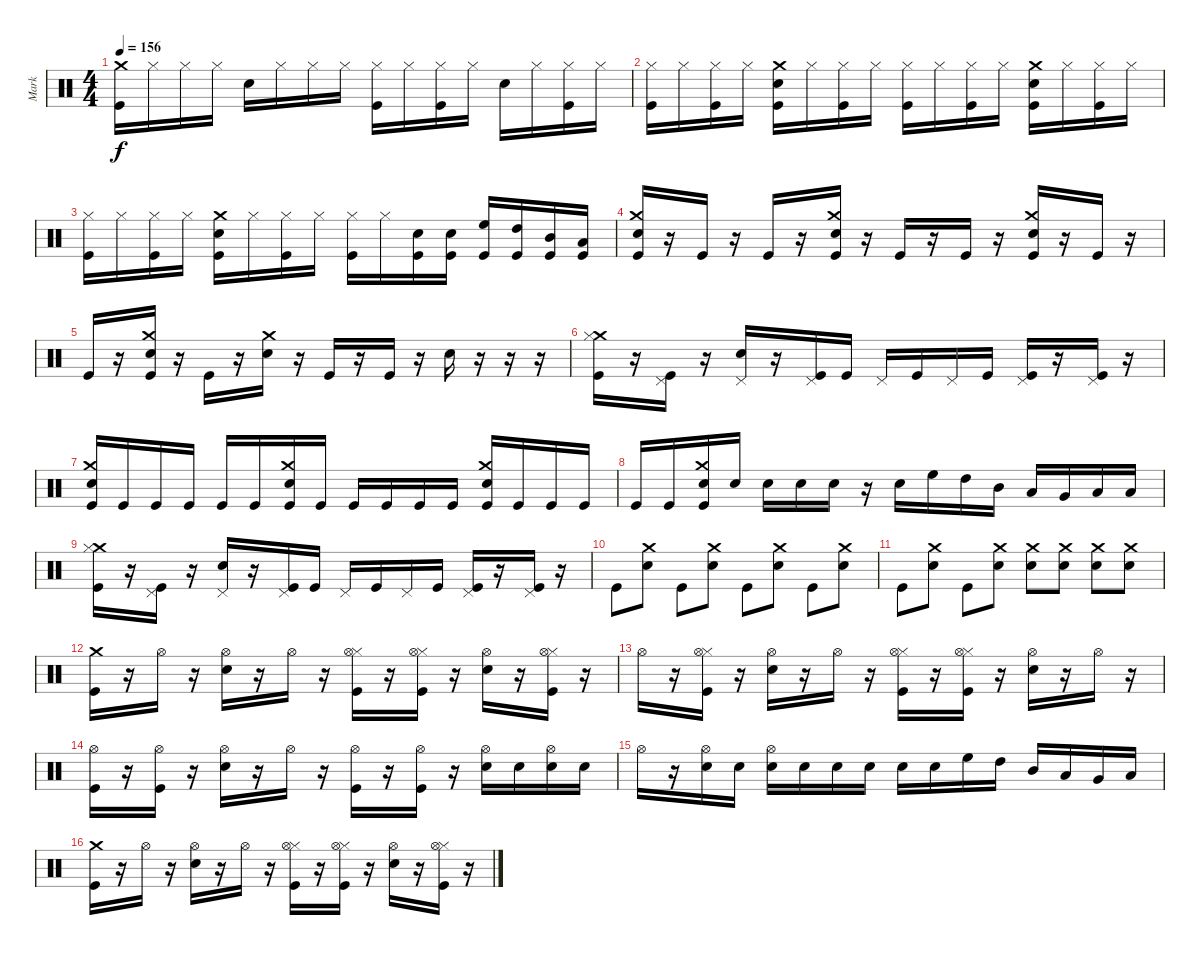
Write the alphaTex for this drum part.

\track ("Mark" "Mark") {instrument percussion}
\staff {score}
\articulation defaults
\ts (4 4)
\tempo 156
\clef neutral
\ks c
("Kick (hit)" "Crash medium (hit)").16{dy f} "Hi-Hat (closed)".16 "Hi-Hat (closed)".16 "Hi-Hat (closed)".16 "Snare (hit) 2".16 "Hi-Hat (closed)".16 "Hi-Hat (closed)".16 "Hi-Hat (closed)".16 ("Kick (hit)" "Hi-Hat (closed)").16 "Hi-Hat (closed)".16 ("Kick (hit)" "Hi-Hat (closed)").16 "Hi-Hat (closed)".16 "Snare (hit) 2".16 "Hi-Hat (closed)".16 ("Kick (hit)" "Hi-Hat (closed)").16 "Hi-Hat (closed)".16 |
("Kick (hit)" "Hi-Hat (closed)").16 "Hi-Hat (closed)".16 ("Kick (hit)" "Hi-Hat (closed)").16 "Hi-Hat (closed)".16 ("Kick (hit)" "Snare (hit) 2" "Crash medium (hit)").16 "Hi-Hat (closed)".16 ("Kick (hit)" "Hi-Hat (closed)").16 "Hi-Hat (closed)".16 ("Kick (hit)" "Hi-Hat (closed)").16 "Hi-Hat (closed)".16 ("Kick (hit)" "Hi-Hat (closed)").16 "Hi-Hat (closed)".16 ("Kick (hit)" "Snare (hit) 2" "Crash medium (hit)").16 "Hi-Hat (closed)".16 ("Kick (hit)" "Hi-Hat (closed)").16 "Hi-Hat (closed)".16 |
("Kick (hit)" "Hi-Hat (closed)").16 "Hi-Hat (closed)".16 ("Kick (hit)" "Hi-Hat (closed)").16 "Hi-Hat (closed)".16 ("Kick (hit)" "Snare (hit) 2" "Crash medium (hit)").16 "Hi-Hat (closed)".16 ("Kick (hit)" "Hi-Hat (closed)").16 "Hi-Hat (closed)".16 ("Kick (hit)" "Hi-Hat (closed)").16 "Hi-Hat (closed)".16 ("Snare (hit) 2" "Kick (hit)").16 ("Snare (hit) 2" "Kick (hit)").16 ("High Floor Tom (hit)" "Kick (hit)").16 ("High Tom (hit)" "Kick (hit)").16 ("Mid Tom (hit)" "Kick (hit)").16 ("Low Tom (hit)" "Kick (hit)").16 |
("Crash medium (hit)" "Kick (hit)" "Snare (hit) 2").16 r.16 "Kick (hit)".16 r.16 "Kick (hit)".16 r.16 ("Crash medium (hit)" "Kick (hit)" "Snare (hit) 2").16 r.16 "Kick (hit)".16 r.16 "Kick (hit)".16 r.16 ("Crash medium (hit)" "Kick (hit)" "Snare (hit) 2").16 r.16 "Kick (hit)".16 r.16 |
"Kick (hit)".16 r.16 ("Crash medium (hit)" "Kick (hit)" "Snare (hit) 2").16 r.16 "Kick (hit)".16 r.16 ("Crash medium (hit)" "Snare (hit) 2").16 r.16 "Kick (hit)".16 r.16 "Kick (hit)".16 r.16 "Snare (hit) 2".16 r.16 r.16 r.16 |
("Crash medium (hit)" "Hi-Hat (closed)" "Kick (hit)").16 r.16 ("Pedal Hi-Hat (hit)" "Kick (hit)").16 r.16 ("Pedal Hi-Hat (hit)" "Snare (hit) 2").16 r.16 ("Pedal Hi-Hat (hit)" "Kick (hit)").16 "Kick (hit)".16 "Pedal Hi-Hat (hit)".16 "Kick (hit)".16 "Pedal Hi-Hat (hit)".16 "Kick (hit)".16 ("Pedal Hi-Hat (hit)" "Kick (hit)").16 r.16 ("Pedal Hi-Hat (hit)" "Kick (hit)").16 r.16 |
("Crash medium (hit)" "Kick (hit)" "Snare (hit) 2").16 "Kick (hit)".16 "Kick (hit)".16 "Kick (hit)".16 "Kick (hit)".16 "Kick (hit)".16 ("Crash medium (hit)" "Kick (hit)" "Snare (hit) 2").16 "Kick (hit)".16 "Kick (hit)".16 "Kick (hit)".16 "Kick (hit)".16 "Kick (hit)".16 ("Crash medium (hit)" "Kick (hit)" "Snare (hit) 2").16 "Kick (hit)".16 "Kick (hit)".16 "Kick (hit)".16 |
"Kick (hit)".16 "Kick (hit)".16 ("Crash medium (hit)" "Kick (hit)" "Snare (hit) 2").16 "Snare (hit) 2".16 "Snare (hit) 2".16 "Snare (hit) 2".16 "Snare (hit) 2".16 r.16 "Snare (hit) 2".16 "High Floor Tom (hit)".16 "High Tom (hit)".16 "Mid Tom (hit)".16 "Low Tom (hit)".16 "Very Low Tom (hit)".16 "Low Floor Tom (hit)".16 "Low Floor Tom (hit)".16 |
("Crash medium (hit)" "Hi-Hat (closed)" "Kick (hit)").16 r.16 ("Pedal Hi-Hat (hit)" "Kick (hit)").16 r.16 ("Pedal Hi-Hat (hit)" "Snare (hit) 2").16 r.16 ("Pedal Hi-Hat (hit)" "Kick (hit)").16 "Kick (hit)".16 "Pedal Hi-Hat (hit)".16 "Kick (hit)".16 "Pedal Hi-Hat (hit)".16 "Kick (hit)".16 ("Pedal Hi-Hat (hit)" "Kick (hit)").16 r.16 ("Pedal Hi-Hat (hit)" "Kick (hit)").16 r.16 |
"Kick (hit)".8 ("Crash medium (hit)" "Snare (hit) 2").8 "Kick (hit)".8 ("Crash medium (hit)" "Snare (hit) 2").8 "Kick (hit)".8 ("Crash medium (hit)" "Snare (hit) 2").8 "Kick (hit)".8 ("Crash medium (hit)" "Snare (hit) 2").8 |
"Kick (hit)".8 ("Crash medium (hit)" "Snare (hit) 2").8 "Kick (hit)".8 ("Crash medium (hit)" "Snare (hit) 2").8 ("Crash medium (hit)" "Snare (hit) 2").8 ("Crash medium (hit)" "Snare (hit) 2").8 ("Crash medium (hit)" "Snare (hit) 2").8 ("Crash medium (hit)" "Snare (hit) 2").8 |
("Kick (hit)" "Crash medium (hit)").16 r.16 "Hi-Hat (open)".16 r.16 ("Hi-Hat (open)" "Snare (hit) 2").16 r.16 "Hi-Hat (open)".16 r.16 ("Kick (hit)" "Hi-Hat (closed)" "Hi-Hat (open)").16 r.16 ("Kick (hit)" "Hi-Hat (closed)" "Hi-Hat (open)").16 r.16 ("Hi-Hat (open)" "Snare (hit) 2").16 r.16 ("Kick (hit)" "Hi-Hat (closed)" "Hi-Hat (open)").16 r.16 |
"Hi-Hat (open)".16 r.16 ("Kick (hit)" "Hi-Hat (closed)" "Hi-Hat (open)").16 r.16 ("Hi-Hat (open)" "Snare (hit) 2").16 r.16 "Hi-Hat (open)".16 r.16 ("Kick (hit)" "Hi-Hat (closed)" "Hi-Hat (open)").16 r.16 ("Kick (hit)" "Hi-Hat (closed)" "Hi-Hat (open)").16 r.16 ("Hi-Hat (open)" "Snare (hit) 2").16 r.16 "Hi-Hat (open)".16 r.16 |
("Kick (hit)" "Hi-Hat (open)").16 r.16 ("Kick (hit)" "Hi-Hat (open)").16 r.16 ("Snare (hit) 2" "Hi-Hat (open)").16 r.16 "Hi-Hat (open)".16 r.16 ("Kick (hit)" "Hi-Hat (open)").16 r.16 ("Kick (hit)" "Hi-Hat (open)").16 r.16 ("Snare (hit) 2" "Hi-Hat (open)").16 "Snare (hit) 2".16 ("Snare (hit) 2" "Hi-Hat (open)").16 "Snare (hit) 2".16 |
"Hi-Hat (open)".16 r.16 ("Snare (hit) 2" "Hi-Hat (open)").16 "Snare (hit) 2".16 ("Snare (hit) 2" "Hi-Hat (open)").16 "Snare (hit) 2".16 "Snare (hit) 2".16 "Snare (hit) 2".16 "Snare (hit) 2".16 "Snare (hit) 2".16 "High Floor Tom (hit)".16 "High Tom (hit)".16 "Mid Tom (hit)".16 "Low Tom (hit)".16 "Very Low Tom (hit)".16 "Low Floor Tom (hit)".16 |
("Kick (hit)" "Crash medium (hit)").16 r.16 "Hi-Hat (open)".16 r.16 ("Hi-Hat (open)" "Snare (hit) 2").16 r.16 "Hi-Hat (open)".16 r.16 ("Kick (hit)" "Hi-Hat (closed)" "Hi-Hat (open)").16 r.16 ("Kick (hit)" "Hi-Hat (closed)" "Hi-Hat (open)").16 r.16 ("Hi-Hat (open)" "Snare (hit) 2").16 r.16 ("Kick (hit)" "Hi-Hat (closed)" "Hi-Hat (open)").16 r.16
